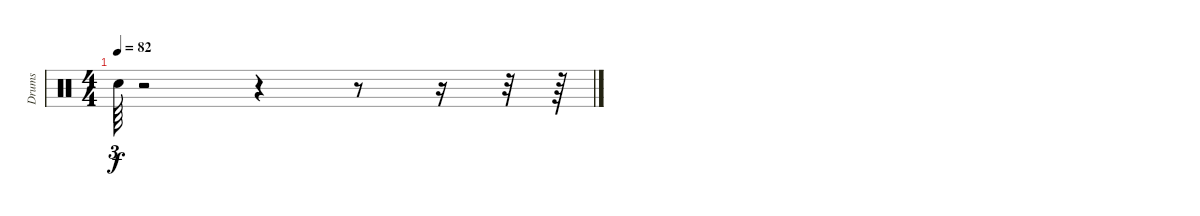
\track ("Drums" "Drums") {instrument percussion}
\staff {score}
\articulation defaults
\ts (4 4)
\tempo 82
\clef neutral
\ks c "Snare (hit)"{t}.64{tu (3 2) dy f}
r.2 r.4 r.8 r.16 r.32 r.64
